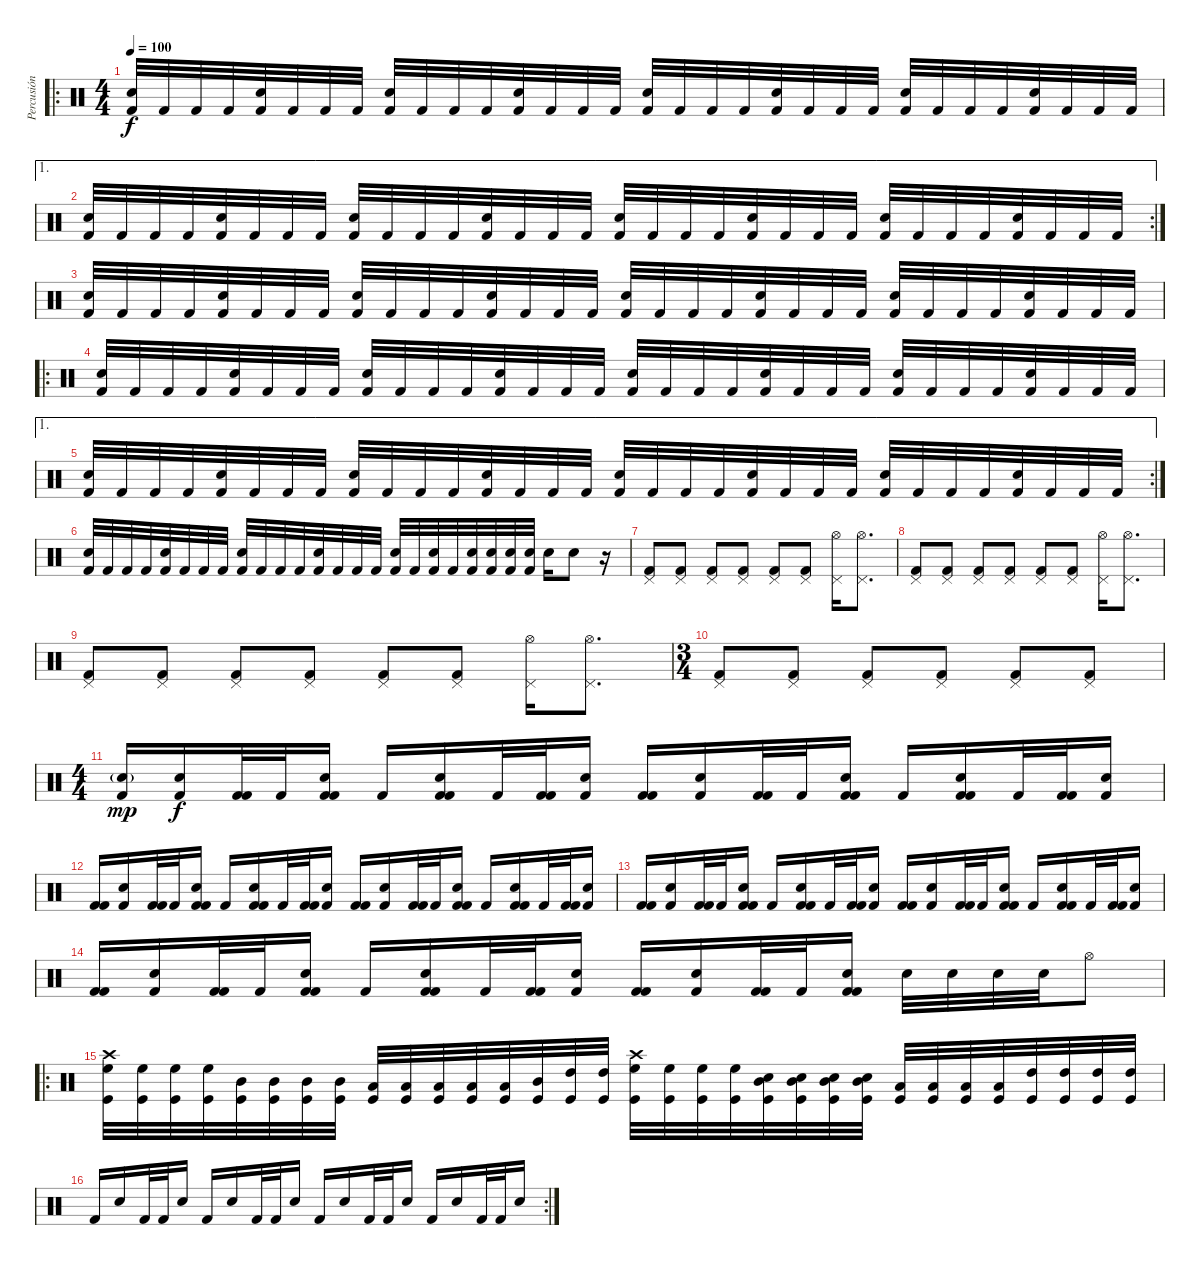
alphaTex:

\track ("Percusión" "Percusión") {instrument percussion}
\staff {score}
\articulation defaults
\ro
\ts (4 4)
\tempo 100
\clef neutral
\ks c
("Snare (hit) 2" "Kick (hit) 2").32{dy f} "Kick (hit) 2".32 "Kick (hit) 2".32 "Kick (hit) 2".32 ("Snare (hit) 2" "Kick (hit) 2").32 "Kick (hit) 2".32 "Kick (hit) 2".32 "Kick (hit) 2".32 ("Snare (hit) 2" "Kick (hit) 2").32 "Kick (hit) 2".32 "Kick (hit) 2".32 "Kick (hit) 2".32 ("Snare (hit) 2" "Kick (hit) 2").32 "Kick (hit) 2".32 "Kick (hit) 2".32 "Kick (hit) 2".32 ("Snare (hit) 2" "Kick (hit) 2").32 "Kick (hit) 2".32 "Kick (hit) 2".32 "Kick (hit) 2".32 ("Snare (hit) 2" "Kick (hit) 2").32 "Kick (hit) 2".32 "Kick (hit) 2".32 "Kick (hit) 2".32 ("Snare (hit) 2" "Kick (hit) 2").32 "Kick (hit) 2".32 "Kick (hit) 2".32 "Kick (hit) 2".32 ("Snare (hit) 2" "Kick (hit) 2").32 "Kick (hit) 2".32 "Kick (hit) 2".32 "Kick (hit) 2".32 |
\ae 1
\rc 2
("Snare (hit) 2" "Kick (hit) 2").32 "Kick (hit) 2".32 "Kick (hit) 2".32 "Kick (hit) 2".32 ("Snare (hit) 2" "Kick (hit) 2").32 "Kick (hit) 2".32 "Kick (hit) 2".32 "Kick (hit) 2".32 ("Snare (hit) 2" "Kick (hit) 2").32 "Kick (hit) 2".32 "Kick (hit) 2".32 "Kick (hit) 2".32 ("Snare (hit) 2" "Kick (hit) 2").32 "Kick (hit) 2".32 "Kick (hit) 2".32 "Kick (hit) 2".32 ("Snare (hit) 2" "Kick (hit) 2").32 "Kick (hit) 2".32 "Kick (hit) 2".32 "Kick (hit) 2".32 ("Snare (hit) 2" "Kick (hit) 2").32 "Kick (hit) 2".32 "Kick (hit) 2".32 "Kick (hit) 2".32 ("Snare (hit) 2" "Kick (hit) 2").32 "Kick (hit) 2".32 "Kick (hit) 2".32 "Kick (hit) 2".32 ("Snare (hit) 2" "Kick (hit) 2").32 "Kick (hit) 2".32 "Kick (hit) 2".32 "Kick (hit) 2".32 |
("Snare (hit) 2" "Kick (hit) 2").32 "Kick (hit) 2".32 "Kick (hit) 2".32 "Kick (hit) 2".32 ("Snare (hit) 2" "Kick (hit) 2").32 "Kick (hit) 2".32 "Kick (hit) 2".32 "Kick (hit) 2".32 ("Snare (hit) 2" "Kick (hit) 2").32 "Kick (hit) 2".32 "Kick (hit) 2".32 "Kick (hit) 2".32 ("Snare (hit) 2" "Kick (hit) 2").32 "Kick (hit) 2".32 "Kick (hit) 2".32 "Kick (hit) 2".32 ("Snare (hit) 2" "Kick (hit) 2").32 "Kick (hit) 2".32 "Kick (hit) 2".32 "Kick (hit) 2".32 ("Snare (hit) 2" "Kick (hit) 2").32 "Kick (hit) 2".32 "Kick (hit) 2".32 "Kick (hit) 2".32 ("Snare (hit) 2" "Kick (hit) 2").32 "Kick (hit) 2".32 "Kick (hit) 2".32 "Kick (hit) 2".32 ("Snare (hit) 2" "Kick (hit) 2").32 "Kick (hit) 2".32 "Kick (hit) 2".32 "Kick (hit) 2".32 |
\ro
("Snare (hit) 2" "Kick (hit) 2").32 "Kick (hit) 2".32 "Kick (hit) 2".32 "Kick (hit) 2".32 ("Snare (hit) 2" "Kick (hit) 2").32 "Kick (hit) 2".32 "Kick (hit) 2".32 "Kick (hit) 2".32 ("Snare (hit) 2" "Kick (hit) 2").32 "Kick (hit) 2".32 "Kick (hit) 2".32 "Kick (hit) 2".32 ("Snare (hit) 2" "Kick (hit) 2").32 "Kick (hit) 2".32 "Kick (hit) 2".32 "Kick (hit) 2".32 ("Snare (hit) 2" "Kick (hit) 2").32 "Kick (hit) 2".32 "Kick (hit) 2".32 "Kick (hit) 2".32 ("Snare (hit) 2" "Kick (hit) 2").32 "Kick (hit) 2".32 "Kick (hit) 2".32 "Kick (hit) 2".32 ("Snare (hit) 2" "Kick (hit) 2").32 "Kick (hit) 2".32 "Kick (hit) 2".32 "Kick (hit) 2".32 ("Snare (hit) 2" "Kick (hit) 2").32 "Kick (hit) 2".32 "Kick (hit) 2".32 "Kick (hit) 2".32 |
\ae 1
\rc 2
("Snare (hit) 2" "Kick (hit) 2").32 "Kick (hit) 2".32 "Kick (hit) 2".32 "Kick (hit) 2".32 ("Snare (hit) 2" "Kick (hit) 2").32 "Kick (hit) 2".32 "Kick (hit) 2".32 "Kick (hit) 2".32 ("Snare (hit) 2" "Kick (hit) 2").32 "Kick (hit) 2".32 "Kick (hit) 2".32 "Kick (hit) 2".32 ("Snare (hit) 2" "Kick (hit) 2").32 "Kick (hit) 2".32 "Kick (hit) 2".32 "Kick (hit) 2".32 ("Snare (hit) 2" "Kick (hit) 2").32 "Kick (hit) 2".32 "Kick (hit) 2".32 "Kick (hit) 2".32 ("Snare (hit) 2" "Kick (hit) 2").32 "Kick (hit) 2".32 "Kick (hit) 2".32 "Kick (hit) 2".32 ("Snare (hit) 2" "Kick (hit) 2").32 "Kick (hit) 2".32 "Kick (hit) 2".32 "Kick (hit) 2".32 ("Snare (hit) 2" "Kick (hit) 2").32 "Kick (hit) 2".32 "Kick (hit) 2".32 "Kick (hit) 2".32 |
("Snare (hit) 2" "Kick (hit) 2").32 "Kick (hit) 2".32 "Kick (hit) 2".32 "Kick (hit) 2".32 ("Snare (hit) 2" "Kick (hit) 2").32 "Kick (hit) 2".32 "Kick (hit) 2".32 "Kick (hit) 2".32 ("Snare (hit) 2" "Kick (hit) 2").32 "Kick (hit) 2".32 "Kick (hit) 2".32 "Kick (hit) 2".32 ("Snare (hit) 2" "Kick (hit) 2").32 "Kick (hit) 2".32 "Kick (hit) 2".32 "Kick (hit) 2".32 ("Snare (hit) 2" "Kick (hit) 2").32 "Kick (hit) 2".32 ("Snare (hit) 2" "Kick (hit) 2").32 "Kick (hit) 2".32 ("Snare (hit) 2" "Kick (hit) 2").32 ("Snare (hit) 2" "Kick (hit) 2").32 ("Snare (hit) 2" "Kick (hit) 2").32 ("Snare (hit) 2" "Kick (hit) 2").32 "Snare (hit) 2".16 "Snare (hit) 2".8 r.16 |
("Pedal Hi-Hat (hit)" "Kick (hit) 2").8 ("Pedal Hi-Hat (hit)" "Kick (hit) 2").8 ("Pedal Hi-Hat (hit)" "Kick (hit) 2").8 ("Pedal Hi-Hat (hit)" "Kick (hit) 2").8 ("Pedal Hi-Hat (hit)" "Kick (hit) 2").8 ("Pedal Hi-Hat (hit)" "Kick (hit) 2").8 ("Pedal Hi-Hat (hit)" "Hi-Hat (open)").16 ("Pedal Hi-Hat (hit)" "Hi-Hat (open)").8{d} |
("Pedal Hi-Hat (hit)" "Kick (hit) 2").8 ("Pedal Hi-Hat (hit)" "Kick (hit) 2").8 ("Pedal Hi-Hat (hit)" "Kick (hit) 2").8 ("Pedal Hi-Hat (hit)" "Kick (hit) 2").8 ("Pedal Hi-Hat (hit)" "Kick (hit) 2").8 ("Pedal Hi-Hat (hit)" "Kick (hit) 2").8 ("Pedal Hi-Hat (hit)" "Hi-Hat (open)").16 ("Pedal Hi-Hat (hit)" "Hi-Hat (open)").8{d} |
("Pedal Hi-Hat (hit)" "Kick (hit) 2").8 ("Pedal Hi-Hat (hit)" "Kick (hit) 2").8 ("Pedal Hi-Hat (hit)" "Kick (hit) 2").8 ("Pedal Hi-Hat (hit)" "Kick (hit) 2").8 ("Pedal Hi-Hat (hit)" "Kick (hit) 2").8 ("Pedal Hi-Hat (hit)" "Kick (hit) 2").8 ("Pedal Hi-Hat (hit)" "Hi-Hat (open)").16 ("Pedal Hi-Hat (hit)" "Hi-Hat (open)").8{d} |
\ts (3 4)
("Pedal Hi-Hat (hit)" "Kick (hit) 2").8 ("Pedal Hi-Hat (hit)" "Kick (hit) 2").8 ("Pedal Hi-Hat (hit)" "Kick (hit) 2").8 ("Pedal Hi-Hat (hit)" "Kick (hit) 2").8 ("Pedal Hi-Hat (hit)" "Kick (hit) 2").8 ("Pedal Hi-Hat (hit)" "Kick (hit) 2").8 |
\ts (4 4)
("Snare (hit) 2"{g} "Kick (hit) 2").16{dy mp} ("Snare (hit) 2" "Kick (hit) 2").16{dy f} ("Kick (hit) 2" "Kick (hit) 2").32 "Kick (hit) 2".32 ("Snare (hit) 2" "Kick (hit) 2" "Kick (hit) 2").16 "Kick (hit) 2".16 ("Snare (hit) 2" "Kick (hit) 2" "Kick (hit) 2").16 "Kick (hit) 2".32 ("Kick (hit) 2" "Kick (hit) 2").32 ("Snare (hit) 2" "Kick (hit) 2").16 ("Kick (hit) 2" "Kick (hit) 2").16 ("Snare (hit) 2" "Kick (hit) 2").16 ("Kick (hit) 2" "Kick (hit) 2").32 "Kick (hit) 2".32 ("Snare (hit) 2" "Kick (hit) 2" "Kick (hit) 2").16 "Kick (hit) 2".16 ("Snare (hit) 2" "Kick (hit) 2" "Kick (hit) 2").16 "Kick (hit) 2".32 ("Kick (hit) 2" "Kick (hit) 2").32 ("Snare (hit) 2" "Kick (hit) 2").16 |
("Kick (hit) 2" "Kick (hit) 2").16 ("Snare (hit) 2" "Kick (hit) 2").16 ("Kick (hit) 2" "Kick (hit) 2").32 "Kick (hit) 2".32 ("Snare (hit) 2" "Kick (hit) 2" "Kick (hit) 2").16 "Kick (hit) 2".16 ("Snare (hit) 2" "Kick (hit) 2" "Kick (hit) 2").16 "Kick (hit) 2".32 ("Kick (hit) 2" "Kick (hit) 2").32 ("Snare (hit) 2" "Kick (hit) 2").16 ("Kick (hit) 2" "Kick (hit) 2").16 ("Snare (hit) 2" "Kick (hit) 2").16 ("Kick (hit) 2" "Kick (hit) 2").32 "Kick (hit) 2".32 ("Snare (hit) 2" "Kick (hit) 2" "Kick (hit) 2").16 "Kick (hit) 2".16 ("Snare (hit) 2" "Kick (hit) 2" "Kick (hit) 2").16 "Kick (hit) 2".32 ("Kick (hit) 2" "Kick (hit) 2").32 ("Snare (hit) 2" "Kick (hit) 2").16 |
("Kick (hit) 2" "Kick (hit) 2").16 ("Snare (hit) 2" "Kick (hit) 2").16 ("Kick (hit) 2" "Kick (hit) 2").32 "Kick (hit) 2".32 ("Snare (hit) 2" "Kick (hit) 2" "Kick (hit) 2").16 "Kick (hit) 2".16 ("Snare (hit) 2" "Kick (hit) 2" "Kick (hit) 2").16 "Kick (hit) 2".32 ("Kick (hit) 2" "Kick (hit) 2").32 ("Snare (hit) 2" "Kick (hit) 2").16 ("Kick (hit) 2" "Kick (hit) 2").16 ("Snare (hit) 2" "Kick (hit) 2").16 ("Kick (hit) 2" "Kick (hit) 2").32 "Kick (hit) 2".32 ("Snare (hit) 2" "Kick (hit) 2" "Kick (hit) 2").16 "Kick (hit) 2".16 ("Snare (hit) 2" "Kick (hit) 2" "Kick (hit) 2").16 "Kick (hit) 2".32 ("Kick (hit) 2" "Kick (hit) 2").32 ("Snare (hit) 2" "Kick (hit) 2").16 |
("Kick (hit) 2" "Kick (hit) 2").16 ("Snare (hit) 2" "Kick (hit) 2").16 ("Kick (hit) 2" "Kick (hit) 2").32 "Kick (hit) 2".32 ("Snare (hit) 2" "Kick (hit) 2" "Kick (hit) 2").16 "Kick (hit) 2".16 ("Snare (hit) 2" "Kick (hit) 2" "Kick (hit) 2").16 "Kick (hit) 2".32 ("Kick (hit) 2" "Kick (hit) 2").32 ("Snare (hit) 2" "Kick (hit) 2").16 ("Kick (hit) 2" "Kick (hit) 2").16 ("Snare (hit) 2" "Kick (hit) 2").16 ("Kick (hit) 2" "Kick (hit) 2").32 "Kick (hit) 2".32 ("Snare (hit) 2" "Kick (hit) 2" "Kick (hit) 2").16 "Snare (hit) 2".32 "Snare (hit) 2".32 "Snare (hit) 2".32 "Snare (hit) 2".32 "Hi-Hat (open)".8 |
\ro
("Crash high (hit)" "Kick (hit)" "High Floor Tom (hit)").32 ("Kick (hit)" "High Floor Tom (hit)").32 ("Kick (hit)" "High Floor Tom (hit)").32 ("Kick (hit)" "High Floor Tom (hit)").32 ("Kick (hit)" "Mid Tom (hit)").32 ("Kick (hit)" "Mid Tom (hit)").32 ("Kick (hit)" "Mid Tom (hit)").32 ("Kick (hit)" "Mid Tom (hit)").32 ("Kick (hit)" "Low Tom (hit)").32 ("Kick (hit)" "Low Tom (hit)").32 ("Kick (hit)" "Low Tom (hit)").32 ("Kick (hit)" "Low Tom (hit)").32 ("Kick (hit)" "Low Tom (hit)").32 ("Kick (hit)" "Mid Tom (hit)").32 ("Kick (hit)" "High Tom (hit)").32 ("Kick (hit)" "High Tom (hit)").32 ("Crash high (hit)" "Kick (hit)" "High Floor Tom (hit)").32 ("Kick (hit)" "High Floor Tom (hit)").32 ("Kick (hit)" "High Floor Tom (hit)").32 ("Kick (hit)" "High Floor Tom (hit)").32 ("Snare (hit) 2" "Kick (hit)" "Mid Tom (hit)").32 ("Snare (hit) 2" "Kick (hit)" "Mid Tom (hit)").32 ("Snare (hit) 2" "Kick (hit)" "Mid Tom (hit)").32 ("Snare (hit) 2" "Kick (hit)" "Mid Tom (hit)").32 ("Kick (hit)" "Low Tom (hit)").32 ("Kick (hit)" "Low Tom (hit)").32 ("Kick (hit)" "Low Tom (hit)").32 ("Kick (hit)" "Low Tom (hit)").32 ("Kick (hit)" "High Tom (hit)").32 ("Kick (hit)" "High Tom (hit)").32 ("Kick (hit)" "High Tom (hit)").32 ("Kick (hit)" "High Tom (hit)").32 |
\rc 2 "Kick (hit) 2".16 "Snare (hit) 2".16 "Kick (hit) 2".32 "Kick (hit) 2".32 "Snare (hit) 2".16 "Kick (hit) 2".16 "Snare (hit) 2".16 "Kick (hit) 2".32 "Kick (hit) 2".32 "Snare (hit) 2".16 "Kick (hit) 2".16 "Snare (hit) 2".16 "Kick (hit) 2".32 "Kick (hit) 2".32 "Snare (hit) 2".16 "Kick (hit) 2".16 "Snare (hit) 2".16 "Kick (hit) 2".32 "Kick (hit) 2".32 "Snare (hit) 2".16
